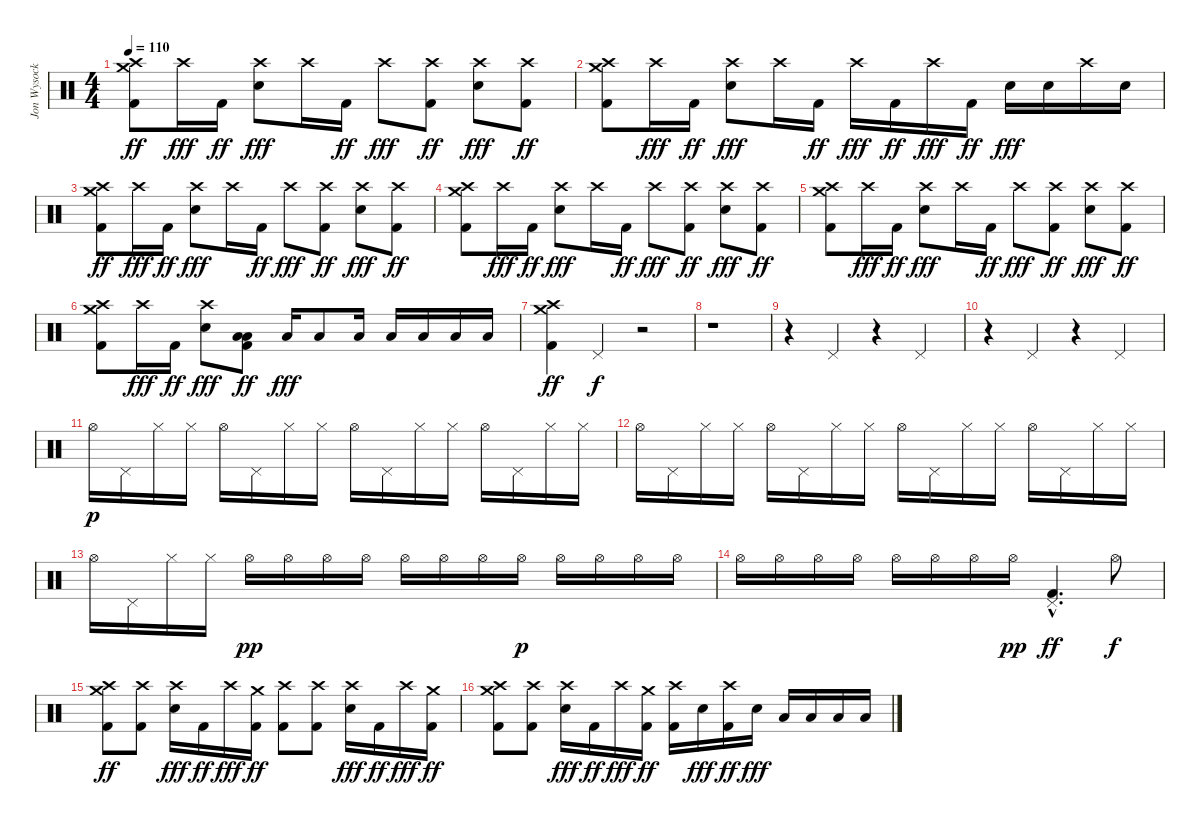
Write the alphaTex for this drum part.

\track ("Jon Wysocki" "Jon Wysock") {instrument percussion}
\staff {score}
\articulation defaults
\ts (4 4)
\tempo 110
\clef neutral
\ks c
("Crash medium (hit)" "Crash high (hit)" "Kick (hit) 2").8{dy ff} "Crash high (hit)".16{dy fff} "Kick (hit) 2".16{dy ff} ("Crash high (hit)" "Electric Snare (hit)").8{dy fff} "Crash high (hit)".16 "Kick (hit) 2".16{dy ff} "Crash high (hit)".8{dy fff} ("Crash high (hit)" "Kick (hit) 2").8{dy ff} ("Crash high (hit)" "Electric Snare (hit)").8{dy fff} ("Crash high (hit)" "Kick (hit) 2").8{dy ff} |
("Crash medium (hit)" "Crash high (hit)" "Kick (hit) 2").8 "Crash high (hit)".16{dy fff} "Kick (hit) 2".16{dy ff} ("Crash high (hit)" "Electric Snare (hit)").8{dy fff} "Crash high (hit)".16 "Kick (hit) 2".16{dy ff} "Crash high (hit)".16{dy fff} "Kick (hit) 2".16{dy ff} "Crash high (hit)".16{dy fff} "Kick (hit) 2".16{dy ff} "Electric Snare (hit)".16{dy fff} "Electric Snare (hit)".16 "Crash high (hit)".16 "Electric Snare (hit)".16 |
("Crash medium (hit)" "Crash high (hit)" "Kick (hit) 2").8{dy ff} "Crash high (hit)".16{dy fff} "Kick (hit) 2".16{dy ff} ("Crash high (hit)" "Electric Snare (hit)").8{dy fff} "Crash high (hit)".16 "Kick (hit) 2".16{dy ff} "Crash high (hit)".8{dy fff} ("Crash high (hit)" "Kick (hit) 2").8{dy ff} ("Crash high (hit)" "Electric Snare (hit)").8{dy fff} ("Crash high (hit)" "Kick (hit) 2").8{dy ff} |
("Crash medium (hit)" "Crash high (hit)" "Kick (hit) 2").8 "Crash high (hit)".16{dy fff} "Kick (hit) 2".16{dy ff} ("Crash high (hit)" "Electric Snare (hit)").8{dy fff} "Crash high (hit)".16 "Kick (hit) 2".16{dy ff} "Crash high (hit)".8{dy fff} ("Crash high (hit)" "Kick (hit) 2").8{dy ff} ("Crash high (hit)" "Electric Snare (hit)").8{dy fff} ("Crash high (hit)" "Kick (hit) 2").8{dy ff} |
("Crash medium (hit)" "Crash high (hit)" "Kick (hit) 2").8 "Crash high (hit)".16{dy fff} "Kick (hit) 2".16{dy ff} ("Crash high (hit)" "Electric Snare (hit)").8{dy fff} "Crash high (hit)".16 "Kick (hit) 2".16{dy ff} "Crash high (hit)".8{dy fff} ("Crash high (hit)" "Kick (hit) 2").8{dy ff} ("Crash high (hit)" "Electric Snare (hit)").8{dy fff} ("Crash high (hit)" "Kick (hit) 2").8{dy ff} |
("Crash medium (hit)" "Crash high (hit)" "Kick (hit) 2").8 "Crash high (hit)".16{dy fff} "Kick (hit) 2".16{dy ff} ("Crash high (hit)" "Electric Snare (hit)").8{dy fff} ("Low Tom (hit)" "Low Floor Tom (hit)" "Kick (hit) 2").8{dy ff} "Low Floor Tom (hit)".16{dy fff} "Low Tom (hit)".8 "Low Tom (hit)".16 "Low Floor Tom (hit)".16 "Low Floor Tom (hit)".16 "Low Floor Tom (hit)".16 "Low Floor Tom (hit)".16 |
("Crash medium (hit)" "Crash high (hit)" "Kick (hit) 2").4{dy ff} "Pedal Hi-Hat (hit)".4{dy f} r.2 |
r.1 |
r.4 "Pedal Hi-Hat (hit)".4 r.4 "Pedal Hi-Hat (hit)".4 |
r.4 "Pedal Hi-Hat (hit)".4 r.4 "Pedal Hi-Hat (hit)".4 |
"Hi-Hat (open)".16{dy p} "Pedal Hi-Hat (hit)".16 "Hi-Hat (closed)".16 "Hi-Hat (closed)".16 "Hi-Hat (open)".16 "Pedal Hi-Hat (hit)".16 "Hi-Hat (closed)".16 "Hi-Hat (closed)".16 "Hi-Hat (open)".16 "Pedal Hi-Hat (hit)".16 "Hi-Hat (closed)".16 "Hi-Hat (closed)".16 "Hi-Hat (open)".16 "Pedal Hi-Hat (hit)".16 "Hi-Hat (closed)".16 "Hi-Hat (closed)".16 |
"Hi-Hat (open)".16 "Pedal Hi-Hat (hit)".16 "Hi-Hat (closed)".16 "Hi-Hat (closed)".16 "Hi-Hat (open)".16 "Pedal Hi-Hat (hit)".16 "Hi-Hat (closed)".16 "Hi-Hat (closed)".16 "Hi-Hat (open)".16 "Pedal Hi-Hat (hit)".16 "Hi-Hat (closed)".16 "Hi-Hat (closed)".16 "Hi-Hat (open)".16 "Pedal Hi-Hat (hit)".16 "Hi-Hat (closed)".16 "Hi-Hat (closed)".16 |
"Hi-Hat (open)".16 "Pedal Hi-Hat (hit)".16 "Hi-Hat (closed)".16 "Hi-Hat (closed)".16 "Hi-Hat (open)".16{dy pp} "Hi-Hat (open)".16 "Hi-Hat (open)".16 "Hi-Hat (open)".16 "Hi-Hat (open)".16 "Hi-Hat (open)".16 "Hi-Hat (open)".16 "Hi-Hat (open)".16{dy p} "Hi-Hat (open)".16 "Hi-Hat (open)".16 "Hi-Hat (open)".16 "Hi-Hat (open)".16 |
"Hi-Hat (open)".16 "Hi-Hat (open)".16 "Hi-Hat (open)".16 "Hi-Hat (open)".16 "Hi-Hat (open)".16 "Hi-Hat (open)".16 "Hi-Hat (open)".16 "Hi-Hat (open)".16{dy pp} ("Pedal Hi-Hat (hit)"{hac} "Kick (hit) 2"{hac}).4{d dy ff} "Hi-Hat (open)".8{dy f} |
("Crash medium (hit)" "Crash high (hit)" "Kick (hit) 2").8{dy ff} ("Crash high (hit)" "Kick (hit) 2").8 ("Crash high (hit)" "Electric Snare (hit)").16{dy fff} "Kick (hit) 2".16{dy ff} "Crash high (hit)".16{dy fff} ("Crash medium (hit)" "Kick (hit) 2").16{dy ff} ("Crash high (hit)" "Kick (hit) 2").8 ("Crash high (hit)" "Kick (hit) 2").8 ("Crash high (hit)" "Electric Snare (hit)").16{dy fff} "Kick (hit) 2".16{dy ff} "Crash high (hit)".16{dy fff} ("Crash medium (hit)" "Kick (hit) 2").16{dy ff} |
("Crash medium (hit)" "Crash high (hit)" "Kick (hit) 2").8 ("Crash high (hit)" "Kick (hit) 2").8 ("Crash high (hit)" "Electric Snare (hit)").16{dy fff} "Kick (hit) 2".16{dy ff} "Crash high (hit)".16{dy fff} ("Crash medium (hit)" "Kick (hit) 2").16{dy ff} ("Crash high (hit)" "Kick (hit) 2").16 "Electric Snare (hit)".16{dy fff} ("Crash high (hit)" "Kick (hit) 2").16{dy ff} "Electric Snare (hit)".16{dy fff} "Low Floor Tom (hit)".16 "Low Floor Tom (hit)".16 "Low Floor Tom (hit)".16 "Low Floor Tom (hit)".16
